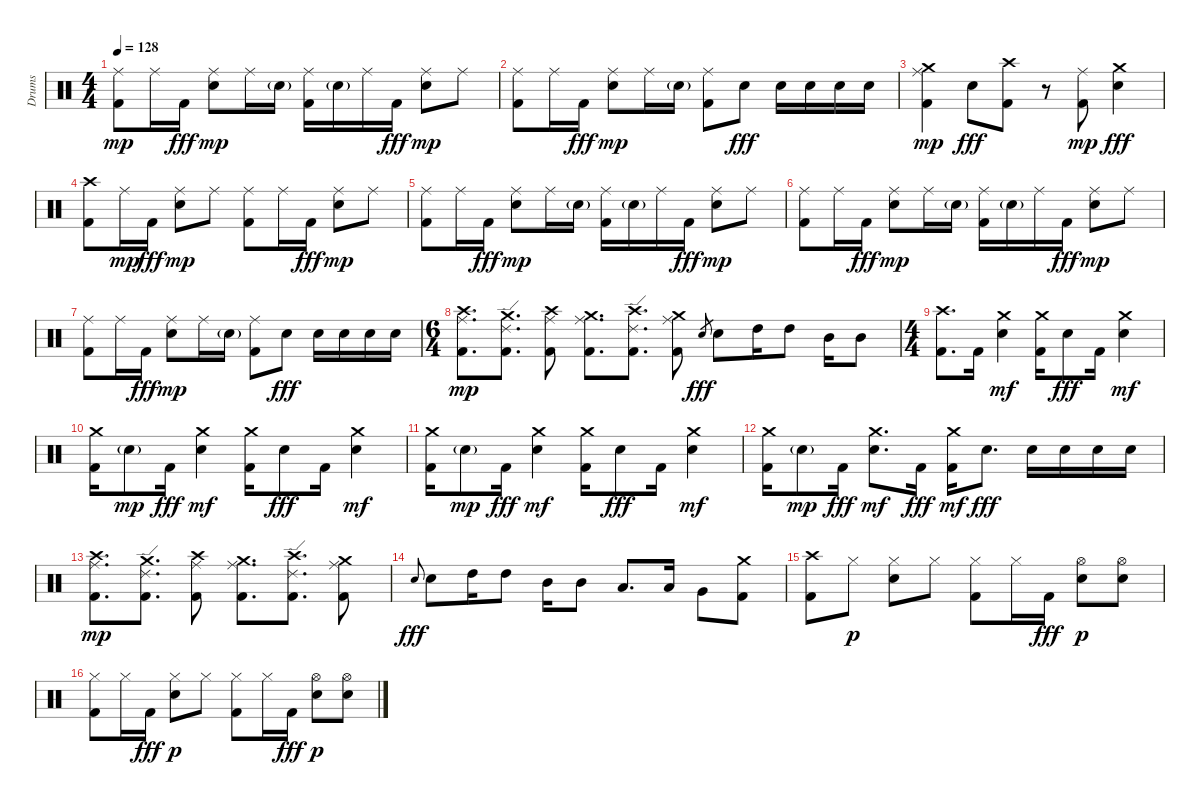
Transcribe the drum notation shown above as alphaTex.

\track ("Drums" "Drums") {instrument percussion}
\staff {score}
\articulation defaults
\ts (4 4)
\tempo 128
\clef neutral
\ks c
("Kick (hit) 2" "Ride (middle)").8{dy mp} "Ride (middle)".16 "Kick (hit) 2".16{dy fff} ("Electric Snare (hit)" "Ride (middle)").8{dy mp} "Ride (middle)".16 "Electric Snare (hit)"{g}.16 ("Kick (hit) 2" "Ride (middle)").16 "Electric Snare (hit)"{g}.16 "Ride (middle)".16 "Kick (hit) 2".16{dy fff} ("Electric Snare (hit)" "Ride (middle)").8{dy mp} "Ride (middle)".8 |
("Kick (hit) 2" "Ride (middle)").8 "Ride (middle)".16 "Kick (hit) 2".16{dy fff} ("Electric Snare (hit)" "Ride (middle)").8{dy mp} "Ride (middle)".16 "Electric Snare (hit)"{g}.16 ("Kick (hit) 2" "Ride (middle)").8 "Electric Snare (hit)".8{dy fff} "Electric Snare (hit)".16 "Electric Snare (hit)".16 "Electric Snare (hit)".16 "Electric Snare (hit)".16 |
("Kick (hit) 2" "Ride (middle)" "Crash medium (hit)").4{dy mp} "Electric Snare (hit)".8{dy fff} ("Kick (hit) 2" "Crash high (hit)").8 r.8 ("Kick (hit) 2" "Ride (middle)").8{dy mp} ("Electric Snare (hit)" "Crash medium (hit)").4{dy fff} |
("Kick (hit) 2" "Crash high (hit)").8 "Ride (middle)".16{dy mp} "Kick (hit) 2".16{dy fff} ("Electric Snare (hit)" "Ride (middle)").8{dy mp} "Ride (middle)".8 ("Kick (hit) 2" "Ride (middle)").8 "Ride (middle)".16 "Kick (hit) 2".16{dy fff} ("Electric Snare (hit)" "Ride (middle)").8{dy mp} "Ride (middle)".8 |
("Kick (hit) 2" "Ride (middle)").8 "Ride (middle)".16 "Kick (hit) 2".16{dy fff} ("Electric Snare (hit)" "Ride (middle)").8{dy mp} "Ride (middle)".16 "Electric Snare (hit)"{g}.16 ("Kick (hit) 2" "Ride (middle)").16 "Electric Snare (hit)"{g}.16 "Ride (middle)".16 "Kick (hit) 2".16{dy fff} ("Electric Snare (hit)" "Ride (middle)").8{dy mp} "Ride (middle)".8 |
("Kick (hit) 2" "Ride (middle)").8 "Ride (middle)".16 "Kick (hit) 2".16{dy fff} ("Electric Snare (hit)" "Ride (middle)").8{dy mp} "Ride (middle)".16 "Electric Snare (hit)"{g}.16 ("Kick (hit) 2" "Ride (middle)").16 "Electric Snare (hit)"{g}.16 "Ride (middle)".16 "Kick (hit) 2".16{dy fff} ("Electric Snare (hit)" "Ride (middle)").8{dy mp} "Ride (middle)".8 |
("Kick (hit) 2" "Ride (middle)").8 "Ride (middle)".16 "Kick (hit) 2".16{dy fff} ("Electric Snare (hit)" "Ride (middle)").8{dy mp} "Ride (middle)".16 "Electric Snare (hit)"{g}.16 ("Kick (hit) 2" "Ride (middle)").8 "Electric Snare (hit)".8{dy fff} "Electric Snare (hit)".16 "Electric Snare (hit)".16 "Electric Snare (hit)".16 "Electric Snare (hit)".16 |
\ts (6 4)
("Kick (hit) 2" "Ride (middle)" "Crash high (hit)").8{d dy mp} ("Kick (hit) 2" "Ride (edge) 2" "Crash medium (hit)").8{d} ("Kick (hit) 2" "Ride (middle)" "Crash high (hit)").8 ("Kick (hit) 2" "Ride (middle)" "Crash medium (hit)").8{d} ("Kick (hit) 2" "Ride (edge) 2" "Crash high (hit)").8{d} ("Kick (hit) 2" "Ride (middle)" "Crash medium (hit)").8 "Electric Snare (hit)".8{gr dy fff} "Electric Snare (hit)".8 "High Tom (hit)".16 "High Tom (hit)".8 "Mid Tom (hit)".16 "Mid Tom (hit)".8 |
\ts (4 4)
("Kick (hit) 2" "Crash high (hit)").8{d} "Kick (hit) 2".16 ("Electric Snare (hit)" "Crash medium (hit)").4{dy mf} ("Kick (hit) 2" "Crash medium (hit)").16 "Electric Snare (hit)".8{dy fff} "Kick (hit) 2".16 ("Electric Snare (hit)" "Crash medium (hit)").4{dy mf} |
("Kick (hit) 2" "Crash medium (hit)").16 "Electric Snare (hit)"{g}.8{dy mp} "Kick (hit) 2".16{dy fff} ("Electric Snare (hit)" "Crash medium (hit)").4{dy mf} ("Kick (hit) 2" "Crash medium (hit)").16 "Electric Snare (hit)".8{dy fff} "Kick (hit) 2".16 ("Electric Snare (hit)" "Crash medium (hit)").4{dy mf} |
("Kick (hit) 2" "Crash medium (hit)").16 "Electric Snare (hit)"{g}.8{dy mp} "Kick (hit) 2".16{dy fff} ("Electric Snare (hit)" "Crash medium (hit)").4{dy mf} ("Kick (hit) 2" "Crash medium (hit)").16 "Electric Snare (hit)".8{dy fff} "Kick (hit) 2".16 ("Electric Snare (hit)" "Crash medium (hit)").4{dy mf} |
("Kick (hit) 2" "Crash medium (hit)").16 "Electric Snare (hit)"{g}.8{dy mp} "Kick (hit) 2".16{dy fff} ("Electric Snare (hit)" "Crash medium (hit)").8{d dy mf} "Kick (hit) 2".16{dy fff} ("Kick (hit) 2" "Crash medium (hit)").16{dy mf} "Electric Snare (hit)".8{d dy fff} "Electric Snare (hit)".16 "Electric Snare (hit)".16 "Electric Snare (hit)".16 "Electric Snare (hit)".16 |
("Kick (hit) 2" "Ride (middle)" "Crash high (hit)").8{d dy mp} ("Kick (hit) 2" "Ride (edge) 2" "Crash medium (hit)").8{d} ("Kick (hit) 2" "Ride (middle)" "Crash high (hit)").8 ("Kick (hit) 2" "Ride (middle)" "Crash medium (hit)").8{d} ("Kick (hit) 2" "Ride (edge) 2" "Crash high (hit)").8{d} ("Kick (hit) 2" "Ride (middle)" "Crash medium (hit)").8 |
"Electric Snare (hit)".8{gr onbeat dy fff} "Electric Snare (hit)".8 "High Tom (hit)".16 "High Tom (hit)".8 "Mid Tom (hit)".16 "Mid Tom (hit)".8 "Low Tom (hit)".8{d} "Low Tom (hit)".16 "Very Low Tom (hit)".8 ("Kick (hit) 2" "Crash medium (hit)").8 |
("Kick (hit) 2" "Crash high (hit)").8 "Hi-Hat (closed)".8{dy p} ("Electric Snare (hit)" "Hi-Hat (closed)").8 "Hi-Hat (closed)".8 ("Kick (hit) 2" "Hi-Hat (closed)").8 "Hi-Hat (closed)".16 "Kick (hit) 2".16{dy fff} ("Electric Snare (hit)" "Hi-Hat (open)").8{dy p} ("Electric Snare (hit)" "Hi-Hat (open)").8 |
("Kick (hit) 2" "Hi-Hat (closed)").8 "Hi-Hat (closed)".16 "Kick (hit) 2".16{dy fff} ("Electric Snare (hit)" "Hi-Hat (closed)").8{dy p} "Hi-Hat (closed)".8 ("Kick (hit) 2" "Hi-Hat (closed)").8 "Hi-Hat (closed)".16 "Kick (hit) 2".16{dy fff} ("Electric Snare (hit)" "Hi-Hat (open)").8{dy p} ("Electric Snare (hit)" "Hi-Hat (open)").8
